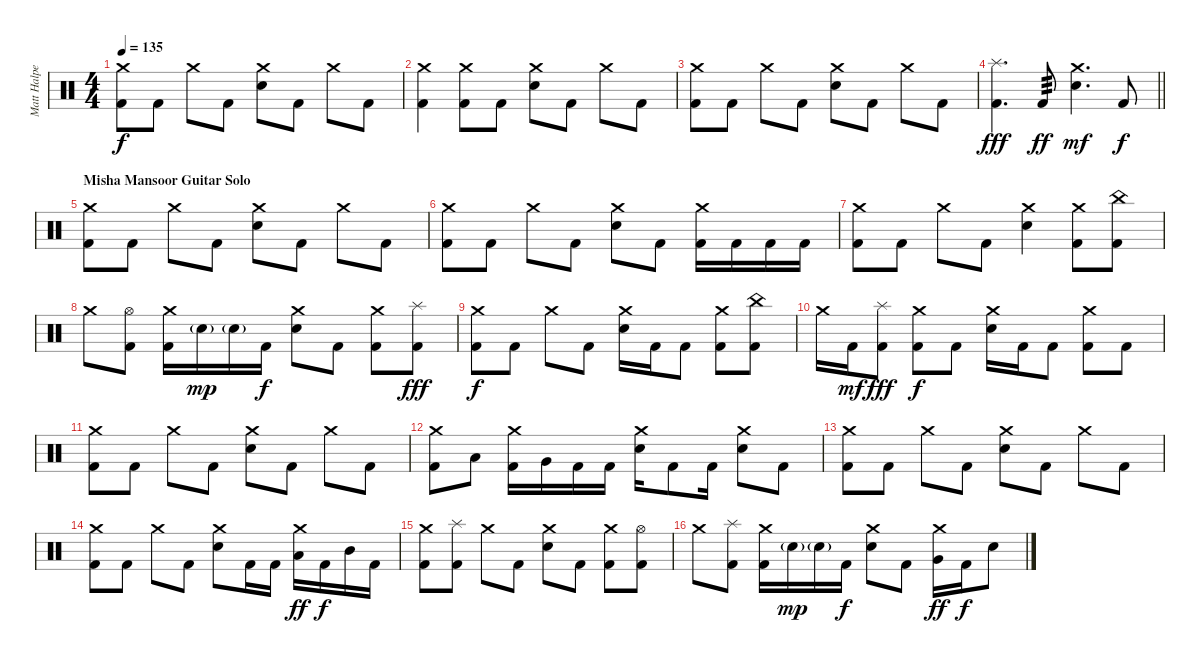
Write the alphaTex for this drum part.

\track ("Matt Halpern - Drums" "Matt Halpe") {instrument percussion}
\staff {score}
\articulation defaults
\ts (4 4)
\tempo 135
\clef neutral
\ks c
("Crash medium (hit)" "Kick (hit) 2").8{dy f} "Kick (hit) 2".8 "Crash medium (hit)".8 "Kick (hit) 2".8 ("Crash medium (hit)" "Electric Snare (hit)").8 "Kick (hit) 2".8 "Crash medium (hit)".8 "Kick (hit) 2".8 |
("Crash medium (hit)" "Kick (hit) 2").4 ("Crash medium (hit)" "Kick (hit) 2").8 "Kick (hit) 2".8 ("Crash medium (hit)" "Electric Snare (hit)").8 "Kick (hit) 2".8 "Crash medium (hit)".8 "Kick (hit) 2".8 |
("Crash medium (hit)" "Kick (hit) 2").8 "Kick (hit) 2".8 "Crash medium (hit)".8 "Kick (hit) 2".8 ("Crash medium (hit)" "Electric Snare (hit)").8 "Kick (hit) 2".8 "Crash medium (hit)".8 "Kick (hit) 2".8 |
\barLineRight lightlight
("Splash (hit)" "Kick (hit) 2").4{d dy fff} "Kick (hit) 2".8{tp 3 dy ff} ("Crash medium (hit)" "Electric Snare (hit)").4{d dy mf} "Kick (hit) 2".8{dy f} |
\section ("" "Misha Mansoor Guitar Solo")
("Crash medium (hit)" "Kick (hit) 2").8 "Kick (hit) 2".8 "Crash medium (hit)".8 "Kick (hit) 2".8 ("Crash medium (hit)" "Electric Snare (hit)").8 "Kick (hit) 2".8 "Crash medium (hit)".8 "Kick (hit) 2".8 |
("Crash medium (hit)" "Kick (hit) 2").8 "Kick (hit) 2".8 "Crash medium (hit)".8 "Kick (hit) 2".8 ("Crash medium (hit)" "Electric Snare (hit)").8 "Kick (hit) 2".8 ("Crash medium (hit)" "Kick (hit) 2").16 "Kick (hit) 2".16 "Kick (hit) 2".16 "Kick (hit) 2".16 |
("Crash medium (hit)" "Kick (hit) 2").8 "Kick (hit) 2".8 "Crash medium (hit)".8 "Kick (hit) 2".8 ("Crash medium (hit)" "Electric Snare (hit)").4 ("Crash medium (hit)" "Kick (hit) 2").8 ("China (hit)" "Kick (hit) 2").8 |
"Crash medium (hit)".8 ("Hi-Hat (open)" "Kick (hit) 2").8 ("Crash medium (hit)" "Kick (hit) 2").16 "Electric Snare (hit)"{g}.16{dy mp} "Electric Snare (hit)"{g}.16 "Kick (hit) 2".16{dy f} ("Crash medium (hit)" "Electric Snare (hit)").8 "Kick (hit) 2".8 ("Crash medium (hit)" "Kick (hit) 2").8 ("Splash (hit)" "Kick (hit) 2").8{dy fff} |
("Crash medium (hit)" "Kick (hit) 2").8{dy f} "Kick (hit) 2".8 "Crash medium (hit)".8 "Kick (hit) 2".8 ("Crash medium (hit)" "Electric Snare (hit)").16 "Kick (hit) 2".16 "Kick (hit) 2".8 ("Crash medium (hit)" "Kick (hit) 2").8 ("China (hit)" "Kick (hit) 2").8 |
"Crash medium (hit)".16 "Kick (hit) 2".16{dy mf} ("Splash (hit)" "Kick (hit) 2").8{dy fff} ("Crash medium (hit)" "Kick (hit) 2").8{dy f} "Kick (hit) 2".8 ("Crash medium (hit)" "Electric Snare (hit)").16 "Kick (hit) 2".16 "Kick (hit) 2".8 ("Crash medium (hit)" "Kick (hit) 2").8 "Kick (hit) 2".8 |
("Crash medium (hit)" "Kick (hit) 2").8 "Kick (hit) 2".8 "Crash medium (hit)".8 "Kick (hit) 2".8 ("Crash medium (hit)" "Electric Snare (hit)").8 "Kick (hit) 2".8 "Crash medium (hit)".8 "Kick (hit) 2".8 |
("Crash medium (hit)" "Kick (hit) 2").8 "Low Tom (hit)".8 ("Crash medium (hit)" "Kick (hit) 2").16 "Very Low Tom (hit)".16 "Kick (hit) 2".16 "Kick (hit) 2".16 ("Crash medium (hit)" "Electric Snare (hit)").16 "Kick (hit) 2".8 "Kick (hit) 2".16 ("Crash medium (hit)" "Electric Snare (hit)").8 "Kick (hit) 2".8 |
("Crash medium (hit)" "Kick (hit) 2").8 "Kick (hit) 2".8 "Crash medium (hit)".8 "Kick (hit) 2".8 ("Crash medium (hit)" "Electric Snare (hit)").8 "Kick (hit) 2".8 "Crash medium (hit)".8 "Kick (hit) 2".8 |
("Crash medium (hit)" "Kick (hit) 2").8 "Kick (hit) 2".8 "Crash medium (hit)".8 "Kick (hit) 2".8 ("Crash medium (hit)" "Electric Snare (hit)").8 "Kick (hit) 2".16 "Kick (hit) 2".16 ("Crash medium (hit)" "Low Tom (hit)").16{dy ff} "Kick (hit) 2".16{dy f} "Mid Tom (hit)".16 "Kick (hit) 2".16 |
("Crash medium (hit)" "Kick (hit) 2").8 ("Splash (hit)" "Kick (hit) 2").8 "Crash medium (hit)".8 "Kick (hit) 2".8 ("Crash medium (hit)" "Electric Snare (hit)").8 "Kick (hit) 2".8 ("Crash medium (hit)" "Kick (hit) 2").8 ("Hi-Hat (open)" "Kick (hit) 2").8 |
"Crash medium (hit)".8 ("Splash (hit)" "Kick (hit) 2").8 ("Crash medium (hit)" "Kick (hit) 2").16 "Electric Snare (hit)"{g}.16{dy mp} "Electric Snare (hit)"{g}.16 "Kick (hit) 2".16{dy f} ("Crash medium (hit)" "Electric Snare (hit)").8 "Kick (hit) 2".8 ("Crash medium (hit)" "Very Low Tom (hit)").16{dy ff} "Kick (hit) 2".16{dy f} "Electric Snare (hit)".8
